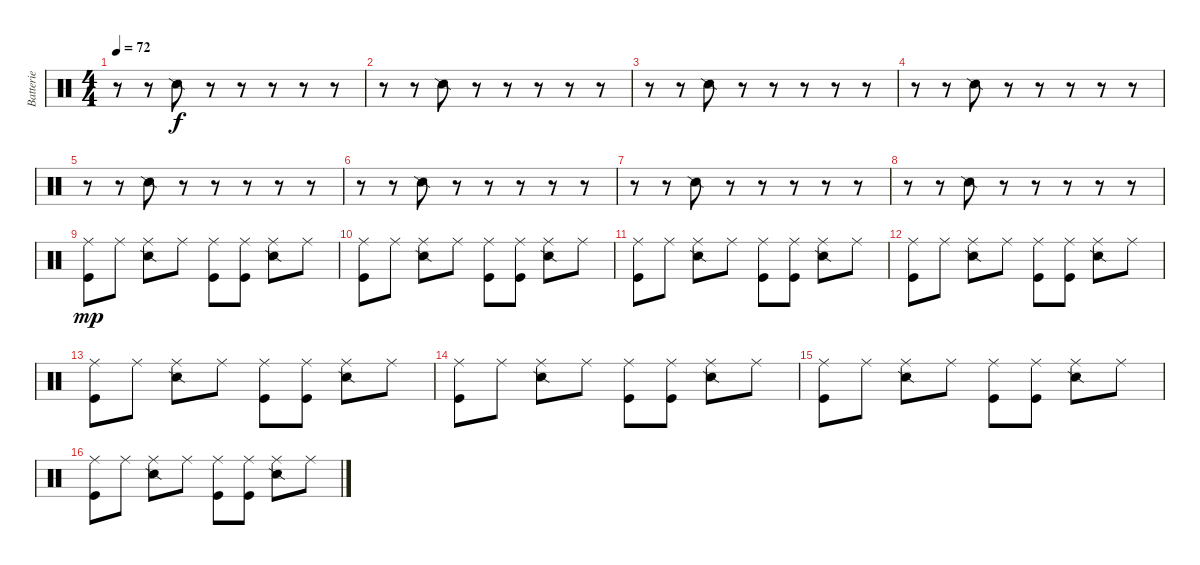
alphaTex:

\track ("Batterie" "Batterie") {instrument percussion}
\staff {score}
\articulation defaults
\ts (4 4)
\tempo 72
\clef neutral
\ks c
r.8{dy f} r.8 "Snare (side stick) 2".8 r.8 r.8 r.8 r.8 r.8 |
r.8 r.8 "Snare (side stick) 2".8 r.8 r.8 r.8 r.8 r.8 |
r.8 r.8 "Snare (side stick) 2".8 r.8 r.8 r.8 r.8 r.8 |
r.8 r.8 "Snare (side stick) 2".8 r.8 r.8 r.8 r.8 r.8 |
r.8 r.8 "Snare (side stick) 2".8 r.8 r.8 r.8 r.8 r.8 |
r.8 r.8 "Snare (side stick) 2".8 r.8 r.8 r.8 r.8 r.8 |
r.8 r.8 "Snare (side stick) 2".8 r.8 r.8 r.8 r.8 r.8 |
r.8 r.8 "Snare (side stick) 2".8 r.8 r.8 r.8 r.8 r.8 |
("Ride (middle)" "Kick (hit)").8{dy mp} "Ride (middle)".8 ("Ride (middle)" "Snare (side stick) 2").8 "Ride (middle)".8 ("Ride (middle)" "Kick (hit)").8 ("Ride (middle)" "Kick (hit)").8 ("Ride (middle)" "Snare (side stick) 2").8 "Ride (middle)".8 |
("Ride (middle)" "Kick (hit)").8 "Ride (middle)".8 ("Ride (middle)" "Snare (side stick) 2").8 "Ride (middle)".8 ("Ride (middle)" "Kick (hit)").8 ("Ride (middle)" "Kick (hit)").8 ("Ride (middle)" "Snare (side stick) 2").8 "Ride (middle)".8 |
("Ride (middle)" "Kick (hit)").8 "Ride (middle)".8 ("Ride (middle)" "Snare (side stick) 2").8 "Ride (middle)".8 ("Ride (middle)" "Kick (hit)").8 ("Ride (middle)" "Kick (hit)").8 ("Ride (middle)" "Snare (side stick) 2").8 "Ride (middle)".8 |
("Ride (middle)" "Kick (hit)").8 "Ride (middle)".8 ("Ride (middle)" "Snare (side stick) 2").8 "Ride (middle)".8 ("Ride (middle)" "Kick (hit)").8 ("Ride (middle)" "Kick (hit)").8 ("Ride (middle)" "Snare (side stick) 2").8 "Ride (middle)".8 |
("Ride (middle)" "Kick (hit)").8 "Ride (middle)".8 ("Ride (middle)" "Snare (side stick) 2").8 "Ride (middle)".8 ("Ride (middle)" "Kick (hit)").8 ("Ride (middle)" "Kick (hit)").8 ("Ride (middle)" "Snare (side stick) 2").8 "Ride (middle)".8 |
("Ride (middle)" "Kick (hit)").8 "Ride (middle)".8 ("Ride (middle)" "Snare (side stick) 2").8 "Ride (middle)".8 ("Ride (middle)" "Kick (hit)").8 ("Ride (middle)" "Kick (hit)").8 ("Ride (middle)" "Snare (side stick) 2").8 "Ride (middle)".8 |
("Ride (middle)" "Kick (hit)").8 "Ride (middle)".8 ("Ride (middle)" "Snare (side stick) 2").8 "Ride (middle)".8 ("Ride (middle)" "Kick (hit)").8 ("Ride (middle)" "Kick (hit)").8 ("Ride (middle)" "Snare (side stick) 2").8 "Ride (middle)".8 |
("Ride (middle)" "Kick (hit)").8 "Ride (middle)".8 ("Ride (middle)" "Snare (side stick) 2").8 "Ride (middle)".8 ("Ride (middle)" "Kick (hit)").8 ("Ride (middle)" "Kick (hit)").8 ("Ride (middle)" "Snare (side stick) 2").8 "Ride (middle)".8
